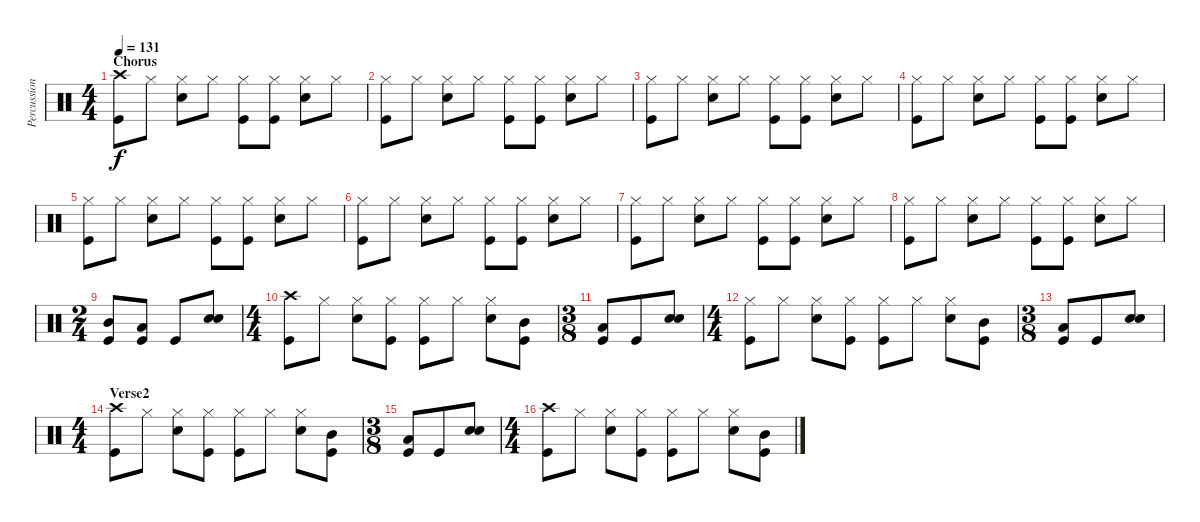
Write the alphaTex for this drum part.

\track ("Percussions" "Percussion") {instrument percussion}
\staff {score}
\articulation defaults
\ts (4 4)
\section ("" "Chorus")
\tempo 131
\clef neutral
\ks c
("Crash high (hit)" "Kick (hit)").8{dy f} "Hi-Hat (closed)".8 ("Hi-Hat (closed)" "Electric Snare (hit)").8 "Hi-Hat (closed)".8 ("Hi-Hat (closed)" "Kick (hit)").8 ("Hi-Hat (closed)" "Kick (hit)").8 ("Hi-Hat (closed)" "Electric Snare (hit)").8 "Hi-Hat (closed)".8 |
("Hi-Hat (closed)" "Kick (hit)").8 "Hi-Hat (closed)".8 ("Hi-Hat (closed)" "Electric Snare (hit)").8 "Hi-Hat (closed)".8 ("Hi-Hat (closed)" "Kick (hit)").8 ("Hi-Hat (closed)" "Kick (hit)").8 ("Hi-Hat (closed)" "Electric Snare (hit)").8 "Hi-Hat (closed)".8 |
("Hi-Hat (closed)" "Kick (hit)").8 "Hi-Hat (closed)".8 ("Hi-Hat (closed)" "Electric Snare (hit)").8 "Hi-Hat (closed)".8 ("Hi-Hat (closed)" "Kick (hit)").8 ("Hi-Hat (closed)" "Kick (hit)").8 ("Hi-Hat (closed)" "Electric Snare (hit)").8 "Hi-Hat (closed)".8 |
("Hi-Hat (closed)" "Kick (hit)").8 "Hi-Hat (closed)".8 ("Hi-Hat (closed)" "Electric Snare (hit)").8 "Hi-Hat (closed)".8 ("Hi-Hat (closed)" "Kick (hit)").8 ("Hi-Hat (closed)" "Kick (hit)").8 ("Hi-Hat (closed)" "Electric Snare (hit)").8 "Hi-Hat (closed)".8 |
("Hi-Hat (closed)" "Kick (hit)").8 "Hi-Hat (closed)".8 ("Hi-Hat (closed)" "Electric Snare (hit)").8 "Hi-Hat (closed)".8 ("Hi-Hat (closed)" "Kick (hit)").8 ("Hi-Hat (closed)" "Kick (hit)").8 ("Hi-Hat (closed)" "Electric Snare (hit)").8 "Hi-Hat (closed)".8 |
("Hi-Hat (closed)" "Kick (hit)").8 "Hi-Hat (closed)".8 ("Hi-Hat (closed)" "Electric Snare (hit)").8 "Hi-Hat (closed)".8 ("Hi-Hat (closed)" "Kick (hit)").8 ("Hi-Hat (closed)" "Kick (hit)").8 ("Hi-Hat (closed)" "Electric Snare (hit)").8 "Hi-Hat (closed)".8 |
("Hi-Hat (closed)" "Kick (hit)").8 "Hi-Hat (closed)".8 ("Hi-Hat (closed)" "Electric Snare (hit)").8 "Hi-Hat (closed)".8 ("Hi-Hat (closed)" "Kick (hit)").8 ("Hi-Hat (closed)" "Kick (hit)").8 ("Hi-Hat (closed)" "Electric Snare (hit)").8 "Hi-Hat (closed)".8 |
("Hi-Hat (closed)" "Kick (hit)").8 "Hi-Hat (closed)".8 ("Hi-Hat (closed)" "Electric Snare (hit)").8 "Hi-Hat (closed)".8 ("Hi-Hat (closed)" "Kick (hit)").8 ("Hi-Hat (closed)" "Kick (hit)").8 ("Hi-Hat (closed)" "Electric Snare (hit)").8 "Hi-Hat (closed)".8 |
\ts (2 4)
("Mid Tom (hit)" "Kick (hit)").8 ("Low Tom (hit)" "Kick (hit)").8 "Kick (hit)".8 ("Electric Snare (hit)" "Electric Snare (hit)").8{bd 120} |
\ts (4 4)
("Crash high (hit)" "Kick (hit)").8 "Hi-Hat (closed)".8 ("Hi-Hat (closed)" "Electric Snare (hit)").8 ("Hi-Hat (closed)" "Kick (hit)").8 ("Hi-Hat (closed)" "Kick (hit)").8 "Hi-Hat (closed)".8 ("Hi-Hat (closed)" "Electric Snare (hit)").8 ("Mid Tom (hit)" "Kick (hit)").8 |
\ts (3 8)
("Low Tom (hit)" "Kick (hit)").8 "Kick (hit)".8 ("Electric Snare (hit)" "Electric Snare (hit)").8{bd 120} |
\ts (4 4)
("Hi-Hat (closed)" "Kick (hit)").8 "Hi-Hat (closed)".8 ("Hi-Hat (closed)" "Electric Snare (hit)").8 ("Hi-Hat (closed)" "Kick (hit)").8 ("Hi-Hat (closed)" "Kick (hit)").8 "Hi-Hat (closed)".8 ("Hi-Hat (closed)" "Electric Snare (hit)").8 ("Mid Tom (hit)" "Kick (hit)").8 |
\ts (3 8)
("Low Tom (hit)" "Kick (hit)").8 "Kick (hit)".8 ("Electric Snare (hit)" "Electric Snare (hit)").8{bd 120} |
\ts (4 4)
\section ("" "Verse2")
("Crash high (hit)" "Kick (hit)").8 "Hi-Hat (closed)".8 ("Hi-Hat (closed)" "Electric Snare (hit)").8 ("Hi-Hat (closed)" "Kick (hit)").8 ("Hi-Hat (closed)" "Kick (hit)").8 "Hi-Hat (closed)".8 ("Hi-Hat (closed)" "Electric Snare (hit)").8 ("Mid Tom (hit)" "Kick (hit)").8 |
\ts (3 8)
("Low Tom (hit)" "Kick (hit)").8 "Kick (hit)".8 ("Electric Snare (hit)" "Electric Snare (hit)").8{bd 120} |
\ts (4 4)
("Crash high (hit)" "Kick (hit)").8 "Hi-Hat (closed)".8 ("Hi-Hat (closed)" "Electric Snare (hit)").8 ("Hi-Hat (closed)" "Kick (hit)").8 ("Hi-Hat (closed)" "Kick (hit)").8 "Hi-Hat (closed)".8 ("Hi-Hat (closed)" "Electric Snare (hit)").8 ("Mid Tom (hit)" "Kick (hit)").8
